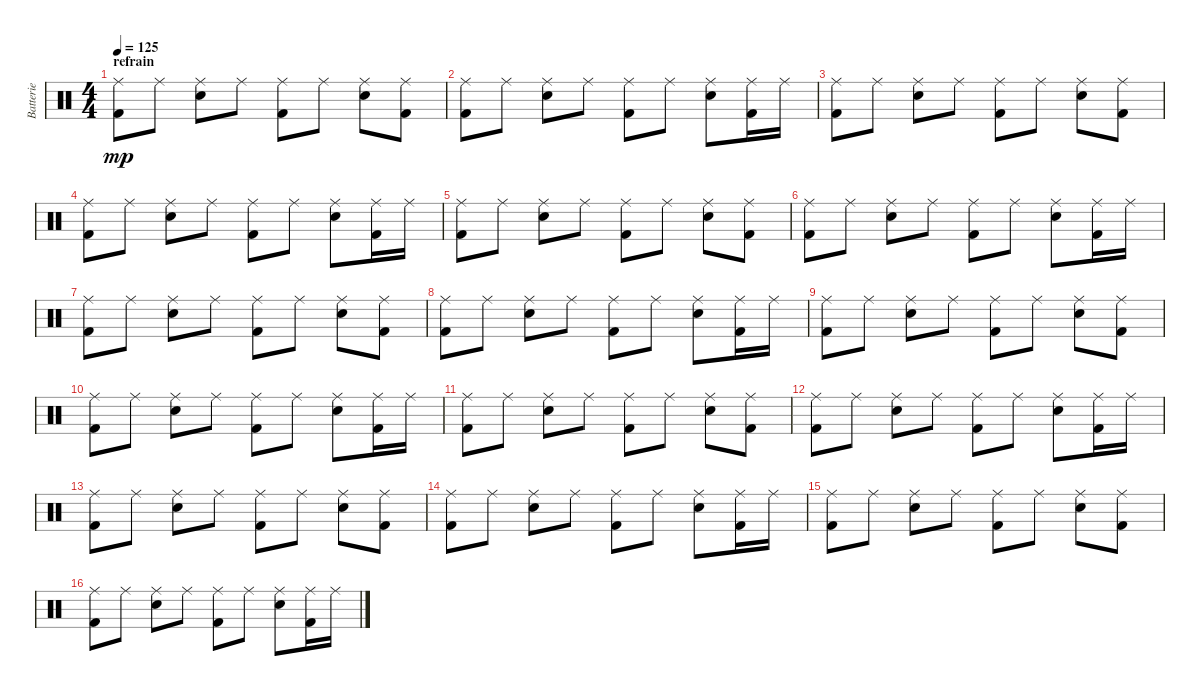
\track ("Batterie" "Batterie") {instrument percussion}
\staff {score}
\articulation defaults
\ts (4 4)
\section ("" "refrain")
\tempo 125
\clef neutral
\ks c
("Ride (middle)" "Kick (hit) 2").8{dy mp} "Ride (middle)".8 ("Ride (middle)" "Electric Snare (hit)").8 "Ride (middle)".8 ("Ride (middle)" "Kick (hit) 2").8 "Ride (middle)".8 ("Ride (middle)" "Electric Snare (hit)").8 ("Ride (middle)" "Kick (hit) 2").8 |
("Ride (middle)" "Kick (hit) 2").8 "Ride (middle)".8 ("Ride (middle)" "Electric Snare (hit)").8 "Ride (middle)".8 ("Ride (middle)" "Kick (hit) 2").8 "Ride (middle)".8 ("Ride (middle)" "Electric Snare (hit)").8 ("Ride (middle)" "Kick (hit) 2").16 "Ride (middle)".16 |
("Ride (middle)" "Kick (hit) 2").8 "Ride (middle)".8 ("Ride (middle)" "Electric Snare (hit)").8 "Ride (middle)".8 ("Ride (middle)" "Kick (hit) 2").8 "Ride (middle)".8 ("Ride (middle)" "Electric Snare (hit)").8 ("Ride (middle)" "Kick (hit) 2").8 |
("Ride (middle)" "Kick (hit) 2").8 "Ride (middle)".8 ("Ride (middle)" "Electric Snare (hit)").8 "Ride (middle)".8 ("Ride (middle)" "Kick (hit) 2").8 "Ride (middle)".8 ("Ride (middle)" "Electric Snare (hit)").8 ("Ride (middle)" "Kick (hit) 2").16 "Ride (middle)".16 |
("Ride (middle)" "Kick (hit) 2").8 "Ride (middle)".8 ("Ride (middle)" "Electric Snare (hit)").8 "Ride (middle)".8 ("Ride (middle)" "Kick (hit) 2").8 "Ride (middle)".8 ("Ride (middle)" "Electric Snare (hit)").8 ("Ride (middle)" "Kick (hit) 2").8 |
("Ride (middle)" "Kick (hit) 2").8 "Ride (middle)".8 ("Ride (middle)" "Electric Snare (hit)").8 "Ride (middle)".8 ("Ride (middle)" "Kick (hit) 2").8 "Ride (middle)".8 ("Ride (middle)" "Electric Snare (hit)").8 ("Ride (middle)" "Kick (hit) 2").16 "Ride (middle)".16 |
("Ride (middle)" "Kick (hit) 2").8 "Ride (middle)".8 ("Ride (middle)" "Electric Snare (hit)").8 "Ride (middle)".8 ("Ride (middle)" "Kick (hit) 2").8 "Ride (middle)".8 ("Ride (middle)" "Electric Snare (hit)").8 ("Ride (middle)" "Kick (hit) 2").8 |
("Ride (middle)" "Kick (hit) 2").8 "Ride (middle)".8 ("Ride (middle)" "Electric Snare (hit)").8 "Ride (middle)".8 ("Ride (middle)" "Kick (hit) 2").8 "Ride (middle)".8 ("Ride (middle)" "Electric Snare (hit)").8 ("Ride (middle)" "Kick (hit) 2").16 "Ride (middle)".16 |
("Ride (middle)" "Kick (hit) 2").8 "Ride (middle)".8 ("Ride (middle)" "Electric Snare (hit)").8 "Ride (middle)".8 ("Ride (middle)" "Kick (hit) 2").8 "Ride (middle)".8 ("Ride (middle)" "Electric Snare (hit)").8 ("Ride (middle)" "Kick (hit) 2").8 |
("Ride (middle)" "Kick (hit) 2").8 "Ride (middle)".8 ("Ride (middle)" "Electric Snare (hit)").8 "Ride (middle)".8 ("Ride (middle)" "Kick (hit) 2").8 "Ride (middle)".8 ("Ride (middle)" "Electric Snare (hit)").8 ("Ride (middle)" "Kick (hit) 2").16 "Ride (middle)".16 |
("Ride (middle)" "Kick (hit) 2").8 "Ride (middle)".8 ("Ride (middle)" "Electric Snare (hit)").8 "Ride (middle)".8 ("Ride (middle)" "Kick (hit) 2").8 "Ride (middle)".8 ("Ride (middle)" "Electric Snare (hit)").8 ("Ride (middle)" "Kick (hit) 2").8 |
("Ride (middle)" "Kick (hit) 2").8 "Ride (middle)".8 ("Ride (middle)" "Electric Snare (hit)").8 "Ride (middle)".8 ("Ride (middle)" "Kick (hit) 2").8 "Ride (middle)".8 ("Ride (middle)" "Electric Snare (hit)").8 ("Ride (middle)" "Kick (hit) 2").16 "Ride (middle)".16 |
("Ride (middle)" "Kick (hit) 2").8 "Ride (middle)".8 ("Ride (middle)" "Electric Snare (hit)").8 "Ride (middle)".8 ("Ride (middle)" "Kick (hit) 2").8 "Ride (middle)".8 ("Ride (middle)" "Electric Snare (hit)").8 ("Ride (middle)" "Kick (hit) 2").8 |
("Ride (middle)" "Kick (hit) 2").8 "Ride (middle)".8 ("Ride (middle)" "Electric Snare (hit)").8 "Ride (middle)".8 ("Ride (middle)" "Kick (hit) 2").8 "Ride (middle)".8 ("Ride (middle)" "Electric Snare (hit)").8 ("Ride (middle)" "Kick (hit) 2").16 "Ride (middle)".16 |
("Ride (middle)" "Kick (hit) 2").8 "Ride (middle)".8 ("Ride (middle)" "Electric Snare (hit)").8 "Ride (middle)".8 ("Ride (middle)" "Kick (hit) 2").8 "Ride (middle)".8 ("Ride (middle)" "Electric Snare (hit)").8 ("Ride (middle)" "Kick (hit) 2").8 |
("Ride (middle)" "Kick (hit) 2").8 "Ride (middle)".8 ("Ride (middle)" "Electric Snare (hit)").8 "Ride (middle)".8 ("Ride (middle)" "Kick (hit) 2").8 "Ride (middle)".8 ("Ride (middle)" "Electric Snare (hit)").8 ("Ride (middle)" "Kick (hit) 2").16 "Ride (middle)".16
